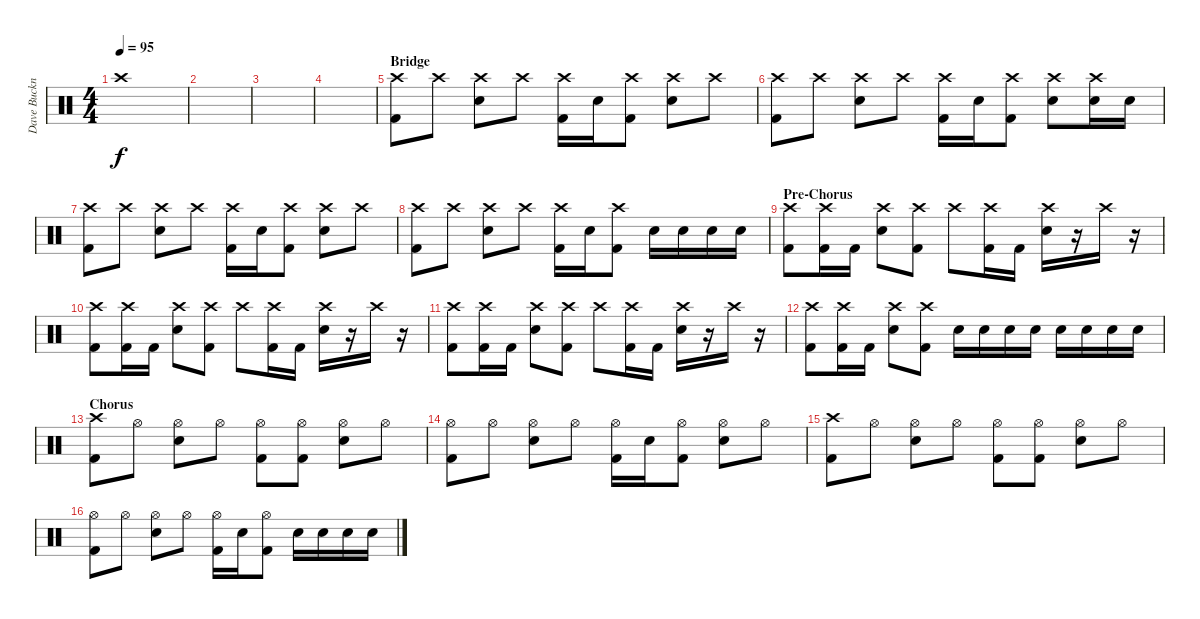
\track ("Dave Buckner " "Dave Buckn") {instrument percussion}
\staff {score}
\articulation defaults
\ts (4 4)
\tempo 95
\clef neutral
\ks c "Crash high (hit)".1{dy f}
|
|
|
|
\section ("" "Bridge")
("Crash high (hit)" "Kick (hit) 2").8 "Crash high (hit)".8 ("Crash high (hit)" "Snare (hit) 2").8 "Crash high (hit)".8 ("Crash high (hit)" "Kick (hit) 2").16 "Snare (hit) 2".16 ("Crash high (hit)" "Kick (hit) 2").8 ("Crash high (hit)" "Snare (hit) 2").8 "Crash high (hit)".8 |
("Crash high (hit)" "Kick (hit) 2").8 "Crash high (hit)".8 ("Crash high (hit)" "Snare (hit) 2").8 "Crash high (hit)".8 ("Crash high (hit)" "Kick (hit) 2").16 "Snare (hit) 2".16 ("Crash high (hit)" "Kick (hit) 2").8 ("Crash high (hit)" "Snare (hit) 2").8 ("Crash high (hit)" "Snare (hit) 2").16 "Snare (hit) 2".16 |
("Crash high (hit)" "Kick (hit) 2").8 "Crash high (hit)".8 ("Crash high (hit)" "Snare (hit) 2").8 "Crash high (hit)".8 ("Crash high (hit)" "Kick (hit) 2").16 "Snare (hit) 2".16 ("Crash high (hit)" "Kick (hit) 2").8 ("Crash high (hit)" "Snare (hit) 2").8 "Crash high (hit)".8 |
("Crash high (hit)" "Kick (hit) 2").8 "Crash high (hit)".8 ("Crash high (hit)" "Snare (hit) 2").8 "Crash high (hit)".8 ("Crash high (hit)" "Kick (hit) 2").16 "Snare (hit) 2".16 ("Crash high (hit)" "Kick (hit) 2").8 "Snare (hit) 2".16 "Snare (hit) 2".16 "Snare (hit) 2".16 "Snare (hit) 2".16 |
\section ("" "Pre-Chorus")
("Crash high (hit)" "Kick (hit) 2").8 ("Crash high (hit)" "Kick (hit) 2").16 "Kick (hit) 2".16 ("Crash high (hit)" "Snare (hit) 2").8 ("Crash high (hit)" "Kick (hit) 2").8 "Crash high (hit)".8 ("Crash high (hit)" "Kick (hit) 2").16 "Kick (hit) 2".16 ("Crash high (hit)" "Snare (hit) 2").16 r.16 "Crash high (hit)".16 r.16 |
("Crash high (hit)" "Kick (hit) 2").8 ("Crash high (hit)" "Kick (hit) 2").16 "Kick (hit) 2".16 ("Crash high (hit)" "Snare (hit) 2").8 ("Crash high (hit)" "Kick (hit) 2").8 "Crash high (hit)".8 ("Crash high (hit)" "Kick (hit) 2").16 "Kick (hit) 2".16 ("Crash high (hit)" "Snare (hit) 2").16 r.16 "Crash high (hit)".16 r.16 |
("Crash high (hit)" "Kick (hit) 2").8 ("Crash high (hit)" "Kick (hit) 2").16 "Kick (hit) 2".16 ("Crash high (hit)" "Snare (hit) 2").8 ("Crash high (hit)" "Kick (hit) 2").8 "Crash high (hit)".8 ("Crash high (hit)" "Kick (hit) 2").16 "Kick (hit) 2".16 ("Crash high (hit)" "Snare (hit) 2").16 r.16 "Crash high (hit)".16 r.16 |
("Crash high (hit)" "Kick (hit) 2").8 ("Crash high (hit)" "Kick (hit) 2").16 "Kick (hit) 2".16 ("Crash high (hit)" "Snare (hit) 2").8 ("Crash high (hit)" "Kick (hit) 2").8 "Snare (hit) 2".16 "Snare (hit) 2".16 "Snare (hit) 2".16 "Snare (hit) 2".16 "Snare (hit) 2".16 "Snare (hit) 2".16 "Snare (hit) 2".16 "Snare (hit) 2".16 |
\section ("" "Chorus")
("Crash high (hit)" "Kick (hit) 2").8 "Hi-Hat (open)".8 ("Hi-Hat (open)" "Snare (hit) 2").8 "Hi-Hat (open)".8 ("Hi-Hat (open)" "Kick (hit) 2").8 ("Hi-Hat (open)" "Kick (hit) 2").8 ("Hi-Hat (open)" "Snare (hit) 2").8 "Hi-Hat (open)".8 |
("Hi-Hat (open)" "Kick (hit) 2").8 "Hi-Hat (open)".8 ("Hi-Hat (open)" "Snare (hit) 2").8 "Hi-Hat (open)".8 ("Hi-Hat (open)" "Kick (hit) 2").16 "Snare (hit) 2".16 ("Hi-Hat (open)" "Kick (hit) 2").8 ("Hi-Hat (open)" "Snare (hit) 2").8 "Hi-Hat (open)".8 |
("Crash high (hit)" "Kick (hit) 2").8 "Hi-Hat (open)".8 ("Hi-Hat (open)" "Snare (hit) 2").8 "Hi-Hat (open)".8 ("Hi-Hat (open)" "Kick (hit) 2").8 ("Hi-Hat (open)" "Kick (hit) 2").8 ("Hi-Hat (open)" "Snare (hit) 2").8 "Hi-Hat (open)".8 |
("Hi-Hat (open)" "Kick (hit) 2").8 "Hi-Hat (open)".8 ("Hi-Hat (open)" "Snare (hit) 2").8 "Hi-Hat (open)".8 ("Hi-Hat (open)" "Kick (hit) 2").16 "Snare (hit) 2".16 ("Hi-Hat (open)" "Kick (hit) 2").8 "Snare (hit) 2".16 "Snare (hit) 2".16 "Snare (hit) 2".16 "Snare (hit) 2".16
